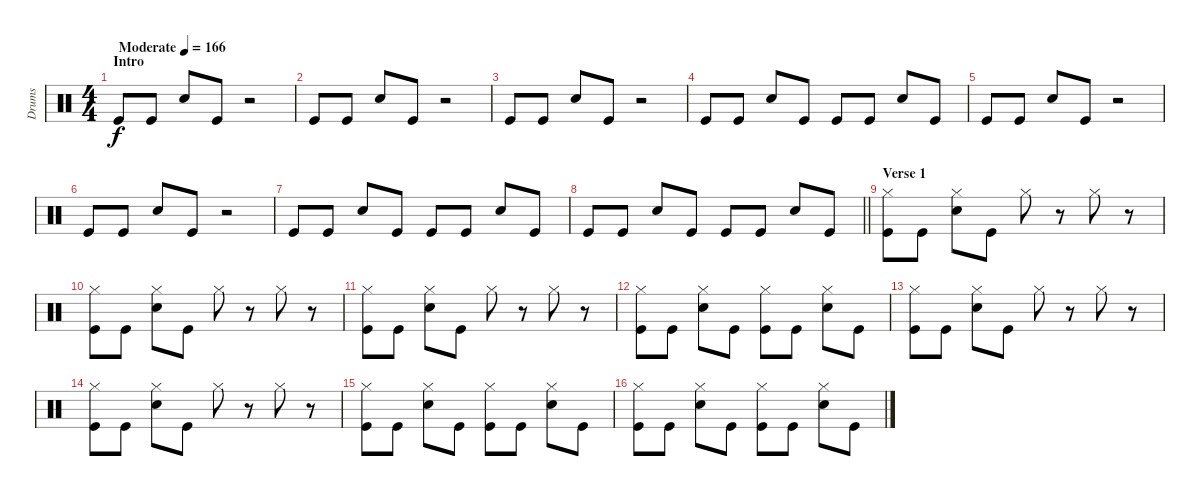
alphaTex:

\track ("Drums" "Drums") {instrument percussion}
\staff {score}
\articulation defaults
\ts (4 4)
\section ("" "Intro")
\tempo (166 "Moderate")
\clef neutral
\ks c "Kick (hit)".8{dy f} "Kick (hit)".8 "Electric Snare (hit)".8 "Kick (hit)".8
r.2 |
"Kick (hit)".8 "Kick (hit)".8 "Electric Snare (hit)".8 "Kick (hit)".8 r.2 |
"Kick (hit)".8 "Kick (hit)".8 "Electric Snare (hit)".8 "Kick (hit)".8 r.2 |
"Kick (hit)".8 "Kick (hit)".8 "Electric Snare (hit)".8 "Kick (hit)".8 "Kick (hit)".8 "Kick (hit)".8 "Electric Snare (hit)".8 "Kick (hit)".8 |
"Kick (hit)".8 "Kick (hit)".8 "Electric Snare (hit)".8 "Kick (hit)".8 r.2 |
"Kick (hit)".8 "Kick (hit)".8 "Electric Snare (hit)".8 "Kick (hit)".8 r.2 |
"Kick (hit)".8 "Kick (hit)".8 "Electric Snare (hit)".8 "Kick (hit)".8 "Kick (hit)".8 "Kick (hit)".8 "Electric Snare (hit)".8 "Kick (hit)".8 |
\barLineRight lightlight "Kick (hit)".8 "Kick (hit)".8 "Electric Snare (hit)".8 "Kick (hit)".8 "Kick (hit)".8 "Kick (hit)".8 "Electric Snare (hit)".8 "Kick (hit)".8
|
\section ("" "Verse 1")
("Hi-Hat (closed)" "Kick (hit)").8 "Kick (hit)".8 ("Hi-Hat (closed)" "Electric Snare (hit)").8 "Kick (hit)".8 "Hi-Hat (closed)".8 r.8 "Hi-Hat (closed)".8 r.8 |
("Hi-Hat (closed)" "Kick (hit)").8 "Kick (hit)".8 ("Hi-Hat (closed)" "Electric Snare (hit)").8 "Kick (hit)".8 "Hi-Hat (closed)".8 r.8 "Hi-Hat (closed)".8 r.8 |
("Hi-Hat (closed)" "Kick (hit)").8 "Kick (hit)".8 ("Hi-Hat (closed)" "Electric Snare (hit)").8 "Kick (hit)".8 "Hi-Hat (closed)".8 r.8 "Hi-Hat (closed)".8 r.8 |
("Hi-Hat (closed)" "Kick (hit)").8 "Kick (hit)".8 ("Hi-Hat (closed)" "Electric Snare (hit)").8 "Kick (hit)".8 ("Hi-Hat (closed)" "Kick (hit)").8 "Kick (hit)".8 ("Hi-Hat (closed)" "Electric Snare (hit)").8 "Kick (hit)".8 |
("Hi-Hat (closed)" "Kick (hit)").8 "Kick (hit)".8 ("Hi-Hat (closed)" "Electric Snare (hit)").8 "Kick (hit)".8 "Hi-Hat (closed)".8 r.8 "Hi-Hat (closed)".8 r.8 |
("Hi-Hat (closed)" "Kick (hit)").8 "Kick (hit)".8 ("Hi-Hat (closed)" "Electric Snare (hit)").8 "Kick (hit)".8 "Hi-Hat (closed)".8 r.8 "Hi-Hat (closed)".8 r.8 |
("Hi-Hat (closed)" "Kick (hit)").8 "Kick (hit)".8 ("Hi-Hat (closed)" "Electric Snare (hit)").8 "Kick (hit)".8 ("Hi-Hat (closed)" "Kick (hit)").8 "Kick (hit)".8 ("Hi-Hat (closed)" "Electric Snare (hit)").8 "Kick (hit)".8 |
("Hi-Hat (closed)" "Kick (hit)").8 "Kick (hit)".8 ("Hi-Hat (closed)" "Electric Snare (hit)").8 "Kick (hit)".8 ("Hi-Hat (closed)" "Kick (hit)").8 "Kick (hit)".8 ("Hi-Hat (closed)" "Electric Snare (hit)").8 "Kick (hit)".8
